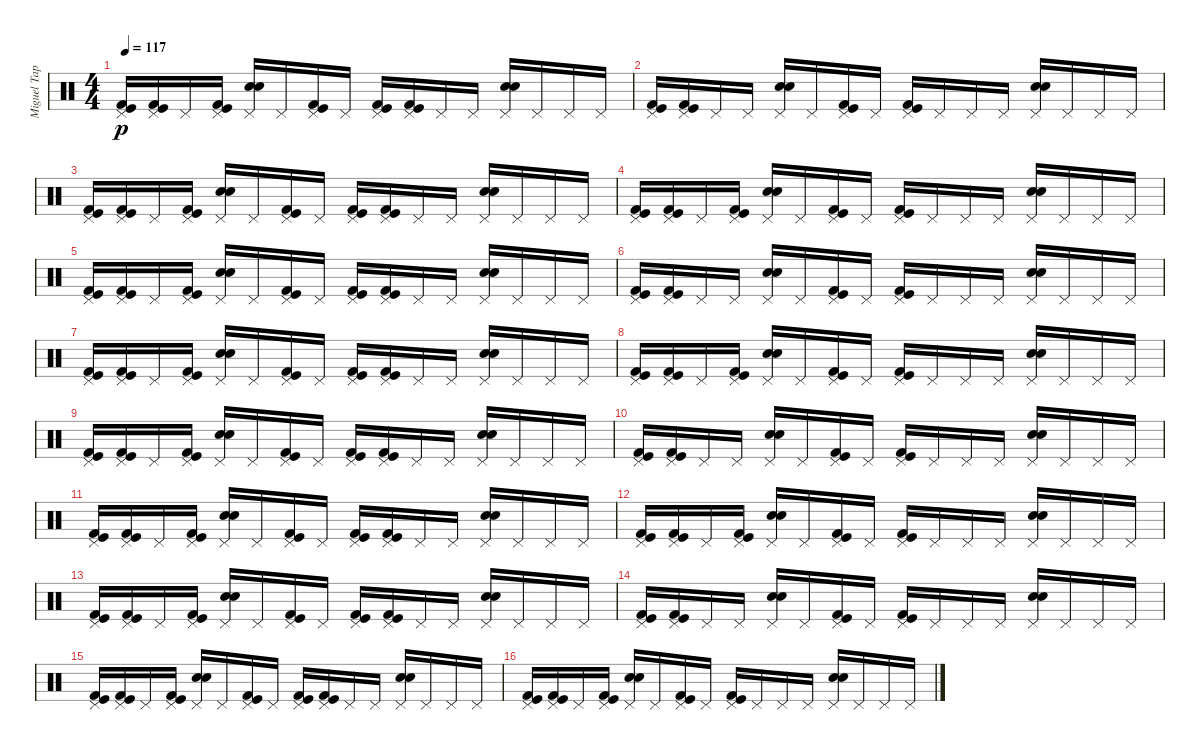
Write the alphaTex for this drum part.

\track ("Miguel Tapia" "Miguel Tap") {instrument percussion}
\staff {score}
\articulation defaults
\ts (4 4)
\tempo 117
\clef neutral
\ks c
("Kick (hit) 2" "Kick (hit)" "Pedal Hi-Hat (hit)").16{dy p} ("Kick (hit) 2" "Kick (hit)" "Pedal Hi-Hat (hit)").16 "Pedal Hi-Hat (hit)".16 ("Kick (hit) 2" "Kick (hit)" "Pedal Hi-Hat (hit)").16 ("Snare (hit) 2" "Electric Snare (hit)" "Pedal Hi-Hat (hit)").16 "Pedal Hi-Hat (hit)".16 ("Kick (hit) 2" "Kick (hit)" "Pedal Hi-Hat (hit)").16 "Pedal Hi-Hat (hit)".16 ("Kick (hit)" "Kick (hit) 2" "Pedal Hi-Hat (hit)").16 ("Kick (hit)" "Kick (hit) 2" "Pedal Hi-Hat (hit)").16 "Pedal Hi-Hat (hit)".16 "Pedal Hi-Hat (hit)".16 ("Snare (hit) 2" "Electric Snare (hit)" "Pedal Hi-Hat (hit)").16 "Pedal Hi-Hat (hit)".16 "Pedal Hi-Hat (hit)".16 "Pedal Hi-Hat (hit)".16 |
("Kick (hit) 2" "Kick (hit)" "Pedal Hi-Hat (hit)").16 ("Kick (hit) 2" "Kick (hit)" "Pedal Hi-Hat (hit)").16 "Pedal Hi-Hat (hit)".16 "Pedal Hi-Hat (hit)".16 ("Snare (hit) 2" "Electric Snare (hit)" "Pedal Hi-Hat (hit)").16 "Pedal Hi-Hat (hit)".16 ("Kick (hit) 2" "Kick (hit)" "Pedal Hi-Hat (hit)").16 "Pedal Hi-Hat (hit)".16 ("Kick (hit)" "Kick (hit) 2" "Pedal Hi-Hat (hit)").16 "Pedal Hi-Hat (hit)".16 "Pedal Hi-Hat (hit)".16 "Pedal Hi-Hat (hit)".16 ("Snare (hit) 2" "Electric Snare (hit)" "Pedal Hi-Hat (hit)").16 "Pedal Hi-Hat (hit)".16 "Pedal Hi-Hat (hit)".16 "Pedal Hi-Hat (hit)".16 |
("Kick (hit) 2" "Kick (hit)" "Pedal Hi-Hat (hit)").16 ("Kick (hit) 2" "Kick (hit)" "Pedal Hi-Hat (hit)").16 "Pedal Hi-Hat (hit)".16 ("Kick (hit) 2" "Kick (hit)" "Pedal Hi-Hat (hit)").16 ("Snare (hit) 2" "Electric Snare (hit)" "Pedal Hi-Hat (hit)").16 "Pedal Hi-Hat (hit)".16 ("Kick (hit) 2" "Kick (hit)" "Pedal Hi-Hat (hit)").16 "Pedal Hi-Hat (hit)".16 ("Kick (hit)" "Kick (hit) 2" "Pedal Hi-Hat (hit)").16 ("Kick (hit)" "Kick (hit) 2" "Pedal Hi-Hat (hit)").16 "Pedal Hi-Hat (hit)".16 "Pedal Hi-Hat (hit)".16 ("Snare (hit) 2" "Electric Snare (hit)" "Pedal Hi-Hat (hit)").16 "Pedal Hi-Hat (hit)".16 "Pedal Hi-Hat (hit)".16 "Pedal Hi-Hat (hit)".16 |
("Kick (hit) 2" "Kick (hit)" "Pedal Hi-Hat (hit)").16 ("Kick (hit) 2" "Kick (hit)" "Pedal Hi-Hat (hit)").16 "Pedal Hi-Hat (hit)".16 ("Kick (hit)" "Kick (hit) 2" "Pedal Hi-Hat (hit)").16 ("Snare (hit) 2" "Electric Snare (hit)" "Pedal Hi-Hat (hit)").16 "Pedal Hi-Hat (hit)".16 ("Kick (hit) 2" "Kick (hit)" "Pedal Hi-Hat (hit)").16 "Pedal Hi-Hat (hit)".16 ("Kick (hit)" "Kick (hit) 2" "Pedal Hi-Hat (hit)").16 "Pedal Hi-Hat (hit)".16 "Pedal Hi-Hat (hit)".16 "Pedal Hi-Hat (hit)".16 ("Snare (hit) 2" "Electric Snare (hit)" "Pedal Hi-Hat (hit)").16 "Pedal Hi-Hat (hit)".16 "Pedal Hi-Hat (hit)".16 "Pedal Hi-Hat (hit)".16 |
("Kick (hit) 2" "Kick (hit)" "Pedal Hi-Hat (hit)").16 ("Kick (hit) 2" "Kick (hit)" "Pedal Hi-Hat (hit)").16 "Pedal Hi-Hat (hit)".16 ("Kick (hit) 2" "Kick (hit)" "Pedal Hi-Hat (hit)").16 ("Snare (hit) 2" "Electric Snare (hit)" "Pedal Hi-Hat (hit)").16 "Pedal Hi-Hat (hit)".16 ("Kick (hit) 2" "Kick (hit)" "Pedal Hi-Hat (hit)").16 "Pedal Hi-Hat (hit)".16 ("Kick (hit)" "Kick (hit) 2" "Pedal Hi-Hat (hit)").16 ("Kick (hit)" "Kick (hit) 2" "Pedal Hi-Hat (hit)").16 "Pedal Hi-Hat (hit)".16 "Pedal Hi-Hat (hit)".16 ("Snare (hit) 2" "Electric Snare (hit)" "Pedal Hi-Hat (hit)").16 "Pedal Hi-Hat (hit)".16 "Pedal Hi-Hat (hit)".16 "Pedal Hi-Hat (hit)".16 |
("Kick (hit) 2" "Kick (hit)" "Pedal Hi-Hat (hit)").16 ("Kick (hit) 2" "Kick (hit)" "Pedal Hi-Hat (hit)").16 "Pedal Hi-Hat (hit)".16 "Pedal Hi-Hat (hit)".16 ("Snare (hit) 2" "Electric Snare (hit)" "Pedal Hi-Hat (hit)").16 "Pedal Hi-Hat (hit)".16 ("Kick (hit) 2" "Kick (hit)" "Pedal Hi-Hat (hit)").16 "Pedal Hi-Hat (hit)".16 ("Kick (hit)" "Kick (hit) 2" "Pedal Hi-Hat (hit)").16 "Pedal Hi-Hat (hit)".16 "Pedal Hi-Hat (hit)".16 "Pedal Hi-Hat (hit)".16 ("Snare (hit) 2" "Electric Snare (hit)" "Pedal Hi-Hat (hit)").16 "Pedal Hi-Hat (hit)".16 "Pedal Hi-Hat (hit)".16 "Pedal Hi-Hat (hit)".16 |
("Kick (hit) 2" "Kick (hit)" "Pedal Hi-Hat (hit)").16 ("Kick (hit) 2" "Kick (hit)" "Pedal Hi-Hat (hit)").16 "Pedal Hi-Hat (hit)".16 ("Kick (hit) 2" "Kick (hit)" "Pedal Hi-Hat (hit)").16 ("Snare (hit) 2" "Electric Snare (hit)" "Pedal Hi-Hat (hit)").16 "Pedal Hi-Hat (hit)".16 ("Kick (hit) 2" "Kick (hit)" "Pedal Hi-Hat (hit)").16 "Pedal Hi-Hat (hit)".16 ("Kick (hit)" "Kick (hit) 2" "Pedal Hi-Hat (hit)").16 ("Kick (hit)" "Kick (hit) 2" "Pedal Hi-Hat (hit)").16 "Pedal Hi-Hat (hit)".16 "Pedal Hi-Hat (hit)".16 ("Snare (hit) 2" "Electric Snare (hit)" "Pedal Hi-Hat (hit)").16 "Pedal Hi-Hat (hit)".16 "Pedal Hi-Hat (hit)".16 "Pedal Hi-Hat (hit)".16 |
("Kick (hit) 2" "Kick (hit)" "Pedal Hi-Hat (hit)").16 ("Kick (hit) 2" "Kick (hit)" "Pedal Hi-Hat (hit)").16 "Pedal Hi-Hat (hit)".16 ("Kick (hit)" "Kick (hit) 2" "Pedal Hi-Hat (hit)").16 ("Snare (hit) 2" "Electric Snare (hit)" "Pedal Hi-Hat (hit)").16 "Pedal Hi-Hat (hit)".16 ("Kick (hit) 2" "Kick (hit)" "Pedal Hi-Hat (hit)").16 "Pedal Hi-Hat (hit)".16 ("Kick (hit)" "Kick (hit) 2" "Pedal Hi-Hat (hit)").16 "Pedal Hi-Hat (hit)".16 "Pedal Hi-Hat (hit)".16 "Pedal Hi-Hat (hit)".16 ("Snare (hit) 2" "Electric Snare (hit)" "Pedal Hi-Hat (hit)").16 "Pedal Hi-Hat (hit)".16 "Pedal Hi-Hat (hit)".16 "Pedal Hi-Hat (hit)".16 |
("Kick (hit) 2" "Kick (hit)" "Pedal Hi-Hat (hit)").16 ("Kick (hit) 2" "Kick (hit)" "Pedal Hi-Hat (hit)").16 "Pedal Hi-Hat (hit)".16 ("Kick (hit) 2" "Kick (hit)" "Pedal Hi-Hat (hit)").16 ("Snare (hit) 2" "Electric Snare (hit)" "Pedal Hi-Hat (hit)").16 "Pedal Hi-Hat (hit)".16 ("Kick (hit) 2" "Kick (hit)" "Pedal Hi-Hat (hit)").16 "Pedal Hi-Hat (hit)".16 ("Kick (hit)" "Kick (hit) 2" "Pedal Hi-Hat (hit)").16 ("Kick (hit)" "Kick (hit) 2" "Pedal Hi-Hat (hit)").16 "Pedal Hi-Hat (hit)".16 "Pedal Hi-Hat (hit)".16 ("Snare (hit) 2" "Electric Snare (hit)" "Pedal Hi-Hat (hit)").16 "Pedal Hi-Hat (hit)".16 "Pedal Hi-Hat (hit)".16 "Pedal Hi-Hat (hit)".16 |
("Kick (hit) 2" "Kick (hit)" "Pedal Hi-Hat (hit)").16 ("Kick (hit) 2" "Kick (hit)" "Pedal Hi-Hat (hit)").16 "Pedal Hi-Hat (hit)".16 "Pedal Hi-Hat (hit)".16 ("Snare (hit) 2" "Electric Snare (hit)" "Pedal Hi-Hat (hit)").16 "Pedal Hi-Hat (hit)".16 ("Kick (hit) 2" "Kick (hit)" "Pedal Hi-Hat (hit)").16 "Pedal Hi-Hat (hit)".16 ("Kick (hit)" "Kick (hit) 2" "Pedal Hi-Hat (hit)").16 "Pedal Hi-Hat (hit)".16 "Pedal Hi-Hat (hit)".16 "Pedal Hi-Hat (hit)".16 ("Snare (hit) 2" "Electric Snare (hit)" "Pedal Hi-Hat (hit)").16 "Pedal Hi-Hat (hit)".16 "Pedal Hi-Hat (hit)".16 "Pedal Hi-Hat (hit)".16 |
("Kick (hit) 2" "Kick (hit)" "Pedal Hi-Hat (hit)").16 ("Kick (hit) 2" "Kick (hit)" "Pedal Hi-Hat (hit)").16 "Pedal Hi-Hat (hit)".16 ("Kick (hit) 2" "Kick (hit)" "Pedal Hi-Hat (hit)").16 ("Snare (hit) 2" "Electric Snare (hit)" "Pedal Hi-Hat (hit)").16 "Pedal Hi-Hat (hit)".16 ("Kick (hit) 2" "Kick (hit)" "Pedal Hi-Hat (hit)").16 "Pedal Hi-Hat (hit)".16 ("Kick (hit)" "Kick (hit) 2" "Pedal Hi-Hat (hit)").16 ("Kick (hit)" "Kick (hit) 2" "Pedal Hi-Hat (hit)").16 "Pedal Hi-Hat (hit)".16 "Pedal Hi-Hat (hit)".16 ("Snare (hit) 2" "Electric Snare (hit)" "Pedal Hi-Hat (hit)").16 "Pedal Hi-Hat (hit)".16 "Pedal Hi-Hat (hit)".16 "Pedal Hi-Hat (hit)".16 |
("Kick (hit) 2" "Kick (hit)" "Pedal Hi-Hat (hit)").16 ("Kick (hit) 2" "Kick (hit)" "Pedal Hi-Hat (hit)").16 "Pedal Hi-Hat (hit)".16 ("Kick (hit)" "Kick (hit) 2" "Pedal Hi-Hat (hit)").16 ("Snare (hit) 2" "Electric Snare (hit)" "Pedal Hi-Hat (hit)").16 "Pedal Hi-Hat (hit)".16 ("Kick (hit) 2" "Kick (hit)" "Pedal Hi-Hat (hit)").16 "Pedal Hi-Hat (hit)".16 ("Kick (hit)" "Kick (hit) 2" "Pedal Hi-Hat (hit)").16 "Pedal Hi-Hat (hit)".16 "Pedal Hi-Hat (hit)".16 "Pedal Hi-Hat (hit)".16 ("Snare (hit) 2" "Electric Snare (hit)" "Pedal Hi-Hat (hit)").16 "Pedal Hi-Hat (hit)".16 "Pedal Hi-Hat (hit)".16 "Pedal Hi-Hat (hit)".16 |
("Kick (hit) 2" "Kick (hit)" "Pedal Hi-Hat (hit)").16 ("Kick (hit) 2" "Kick (hit)" "Pedal Hi-Hat (hit)").16 "Pedal Hi-Hat (hit)".16 ("Kick (hit) 2" "Kick (hit)" "Pedal Hi-Hat (hit)").16 ("Snare (hit) 2" "Electric Snare (hit)" "Pedal Hi-Hat (hit)").16 "Pedal Hi-Hat (hit)".16 ("Kick (hit) 2" "Kick (hit)" "Pedal Hi-Hat (hit)").16 "Pedal Hi-Hat (hit)".16 ("Kick (hit)" "Kick (hit) 2" "Pedal Hi-Hat (hit)").16 ("Kick (hit)" "Kick (hit) 2" "Pedal Hi-Hat (hit)").16 "Pedal Hi-Hat (hit)".16 "Pedal Hi-Hat (hit)".16 ("Snare (hit) 2" "Electric Snare (hit)" "Pedal Hi-Hat (hit)").16 "Pedal Hi-Hat (hit)".16 "Pedal Hi-Hat (hit)".16 "Pedal Hi-Hat (hit)".16 |
("Kick (hit) 2" "Kick (hit)" "Pedal Hi-Hat (hit)").16 ("Kick (hit) 2" "Kick (hit)" "Pedal Hi-Hat (hit)").16 "Pedal Hi-Hat (hit)".16 "Pedal Hi-Hat (hit)".16 ("Snare (hit) 2" "Electric Snare (hit)" "Pedal Hi-Hat (hit)").16 "Pedal Hi-Hat (hit)".16 ("Kick (hit) 2" "Kick (hit)" "Pedal Hi-Hat (hit)").16 "Pedal Hi-Hat (hit)".16 ("Kick (hit)" "Kick (hit) 2" "Pedal Hi-Hat (hit)").16 "Pedal Hi-Hat (hit)".16 "Pedal Hi-Hat (hit)".16 "Pedal Hi-Hat (hit)".16 ("Snare (hit) 2" "Electric Snare (hit)" "Pedal Hi-Hat (hit)").16 "Pedal Hi-Hat (hit)".16 "Pedal Hi-Hat (hit)".16 "Pedal Hi-Hat (hit)".16 |
("Kick (hit) 2" "Kick (hit)" "Pedal Hi-Hat (hit)").16 ("Kick (hit) 2" "Kick (hit)" "Pedal Hi-Hat (hit)").16 "Pedal Hi-Hat (hit)".16 ("Kick (hit) 2" "Kick (hit)" "Pedal Hi-Hat (hit)").16 ("Snare (hit) 2" "Electric Snare (hit)" "Pedal Hi-Hat (hit)").16 "Pedal Hi-Hat (hit)".16 ("Kick (hit) 2" "Kick (hit)" "Pedal Hi-Hat (hit)").16 "Pedal Hi-Hat (hit)".16 ("Kick (hit)" "Kick (hit) 2" "Pedal Hi-Hat (hit)").16 ("Kick (hit)" "Kick (hit) 2" "Pedal Hi-Hat (hit)").16 "Pedal Hi-Hat (hit)".16 "Pedal Hi-Hat (hit)".16 ("Snare (hit) 2" "Electric Snare (hit)" "Pedal Hi-Hat (hit)").16 "Pedal Hi-Hat (hit)".16 "Pedal Hi-Hat (hit)".16 "Pedal Hi-Hat (hit)".16 |
("Kick (hit) 2" "Kick (hit)" "Pedal Hi-Hat (hit)").16 ("Kick (hit) 2" "Kick (hit)" "Pedal Hi-Hat (hit)").16 "Pedal Hi-Hat (hit)".16 ("Kick (hit)" "Kick (hit) 2" "Pedal Hi-Hat (hit)").16 ("Snare (hit) 2" "Electric Snare (hit)" "Pedal Hi-Hat (hit)").16 "Pedal Hi-Hat (hit)".16 ("Kick (hit) 2" "Kick (hit)" "Pedal Hi-Hat (hit)").16 "Pedal Hi-Hat (hit)".16 ("Kick (hit)" "Kick (hit) 2" "Pedal Hi-Hat (hit)").16 "Pedal Hi-Hat (hit)".16 "Pedal Hi-Hat (hit)".16 "Pedal Hi-Hat (hit)".16 ("Snare (hit) 2" "Electric Snare (hit)" "Pedal Hi-Hat (hit)").16 "Pedal Hi-Hat (hit)".16 "Pedal Hi-Hat (hit)".16 "Pedal Hi-Hat (hit)".16
